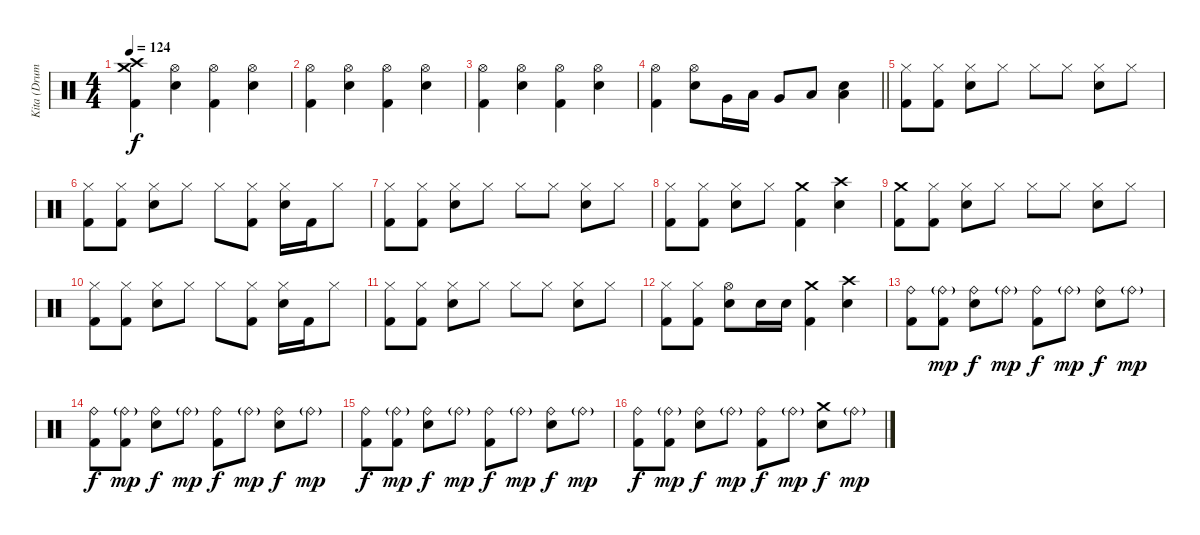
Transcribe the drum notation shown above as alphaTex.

\track ("Kita (Drums)" "Kita (Drum") {instrument percussion}
\staff {score}
\articulation defaults
\ts (4 4)
\tempo 124
\clef neutral
\ks c
("Crash medium (hit)" "Crash high (hit)" "Kick (hit) 2").4{dy f} ("Hi-Hat (open)" "Electric Snare (hit)").4 ("Hi-Hat (open)" "Kick (hit) 2").4 ("Hi-Hat (open)" "Electric Snare (hit)").4 |
("Hi-Hat (open)" "Kick (hit) 2").4 ("Hi-Hat (open)" "Electric Snare (hit)").4 ("Hi-Hat (open)" "Kick (hit) 2").4 ("Hi-Hat (open)" "Electric Snare (hit)").4 |
("Hi-Hat (open)" "Kick (hit) 2").4 ("Hi-Hat (open)" "Electric Snare (hit)").4 ("Hi-Hat (open)" "Kick (hit) 2").4 ("Hi-Hat (open)" "Electric Snare (hit)").4 |
\barLineRight lightlight
("Hi-Hat (open)" "Kick (hit) 2").4 ("Hi-Hat (open)" "Electric Snare (hit)").8 "Very Low Tom (hit)".16 "Low Tom (hit)".16 "Very Low Tom (hit)".8 "Low Floor Tom (hit)".8 ("Low Floor Tom (hit)" "Electric Snare (hit)").4 |
("Hi-Hat (closed)" "Kick (hit) 2").8 ("Hi-Hat (closed)" "Kick (hit) 2").8 ("Hi-Hat (closed)" "Electric Snare (hit)").8 "Hi-Hat (closed)".8 "Hi-Hat (closed)".8 "Hi-Hat (closed)".8 ("Hi-Hat (closed)" "Electric Snare (hit)").8 "Hi-Hat (closed)".8 |
("Hi-Hat (closed)" "Kick (hit) 2").8 ("Hi-Hat (closed)" "Kick (hit) 2").8 ("Hi-Hat (closed)" "Electric Snare (hit)").8 "Hi-Hat (closed)".8 "Hi-Hat (closed)".8 ("Hi-Hat (closed)" "Kick (hit) 2").8 ("Hi-Hat (closed)" "Electric Snare (hit)").16 "Kick (hit) 2".16 "Hi-Hat (closed)".8 |
("Hi-Hat (closed)" "Kick (hit) 2").8 ("Hi-Hat (closed)" "Kick (hit) 2").8 ("Hi-Hat (closed)" "Electric Snare (hit)").8 "Hi-Hat (closed)".8 "Hi-Hat (closed)".8 "Hi-Hat (closed)".8 ("Hi-Hat (closed)" "Electric Snare (hit)").8 "Hi-Hat (closed)".8 |
("Hi-Hat (closed)" "Kick (hit) 2").8 ("Hi-Hat (closed)" "Kick (hit) 2").8 ("Hi-Hat (closed)" "Electric Snare (hit)").8 "Hi-Hat (closed)".8 ("Crash medium (hit)" "Kick (hit) 2").4 ("Crash high (hit)" "Electric Snare (hit)").4 |
("Crash medium (hit)" "Kick (hit) 2").8 ("Hi-Hat (closed)" "Kick (hit) 2").8 ("Hi-Hat (closed)" "Electric Snare (hit)").8 "Hi-Hat (closed)".8 "Hi-Hat (closed)".8 "Hi-Hat (closed)".8 ("Hi-Hat (closed)" "Electric Snare (hit)").8 "Hi-Hat (closed)".8 |
("Hi-Hat (closed)" "Kick (hit) 2").8 ("Hi-Hat (closed)" "Kick (hit) 2").8 ("Hi-Hat (closed)" "Electric Snare (hit)").8 "Hi-Hat (closed)".8 "Hi-Hat (closed)".8 ("Hi-Hat (closed)" "Kick (hit) 2").8 ("Hi-Hat (closed)" "Electric Snare (hit)").16 "Kick (hit) 2".16 "Hi-Hat (closed)".8 |
("Hi-Hat (closed)" "Kick (hit) 2").8 ("Hi-Hat (closed)" "Kick (hit) 2").8 ("Hi-Hat (closed)" "Electric Snare (hit)").8 "Hi-Hat (closed)".8 "Hi-Hat (closed)".8 "Hi-Hat (closed)".8 ("Hi-Hat (closed)" "Electric Snare (hit)").8 "Hi-Hat (closed)".8 |
("Hi-Hat (closed)" "Kick (hit) 2").8 ("Hi-Hat (closed)" "Kick (hit) 2").8 ("Hi-Hat (open)" "Electric Snare (hit)").8 "Electric Snare (hit)".16 "Electric Snare (hit)".16 ("Crash medium (hit)" "Kick (hit) 2").4 ("Crash high (hit)" "Electric Snare (hit)").4 |
("Ride (bell)" "Kick (hit) 2").8 ("Ride (bell)"{g} "Kick (hit) 2").8{dy mp} ("Ride (bell)" "Electric Snare (hit)").8{dy f} "Ride (bell)"{g}.8{dy mp} ("Ride (bell)" "Kick (hit) 2").8{dy f} "Ride (bell)"{g}.8{dy mp} ("Ride (bell)" "Electric Snare (hit)").8{dy f} "Ride (bell)"{g}.8{dy mp} |
("Ride (bell)" "Kick (hit) 2").8{dy f} ("Ride (bell)"{g} "Kick (hit) 2").8{dy mp} ("Ride (bell)" "Electric Snare (hit)").8{dy f} "Ride (bell)"{g}.8{dy mp} ("Ride (bell)" "Kick (hit) 2").8{dy f} "Ride (bell)"{g}.8{dy mp} ("Ride (bell)" "Electric Snare (hit)").8{dy f} "Ride (bell)"{g}.8{dy mp} |
("Ride (bell)" "Kick (hit) 2").8{dy f} ("Ride (bell)"{g} "Kick (hit) 2").8{dy mp} ("Ride (bell)" "Electric Snare (hit)").8{dy f} "Ride (bell)"{g}.8{dy mp} ("Ride (bell)" "Kick (hit) 2").8{dy f} "Ride (bell)"{g}.8{dy mp} ("Ride (bell)" "Electric Snare (hit)").8{dy f} "Ride (bell)"{g}.8{dy mp} |
("Ride (bell)" "Kick (hit) 2").8{dy f} ("Ride (bell)"{g} "Kick (hit) 2").8{dy mp} ("Ride (bell)" "Electric Snare (hit)").8{dy f} "Ride (bell)"{g}.8{dy mp} ("Ride (bell)" "Kick (hit) 2").8{dy f} "Ride (bell)"{g}.8{dy mp} ("Crash medium (hit)" "Electric Snare (hit)").8{dy f} "Ride (bell)"{g}.8{dy mp}
